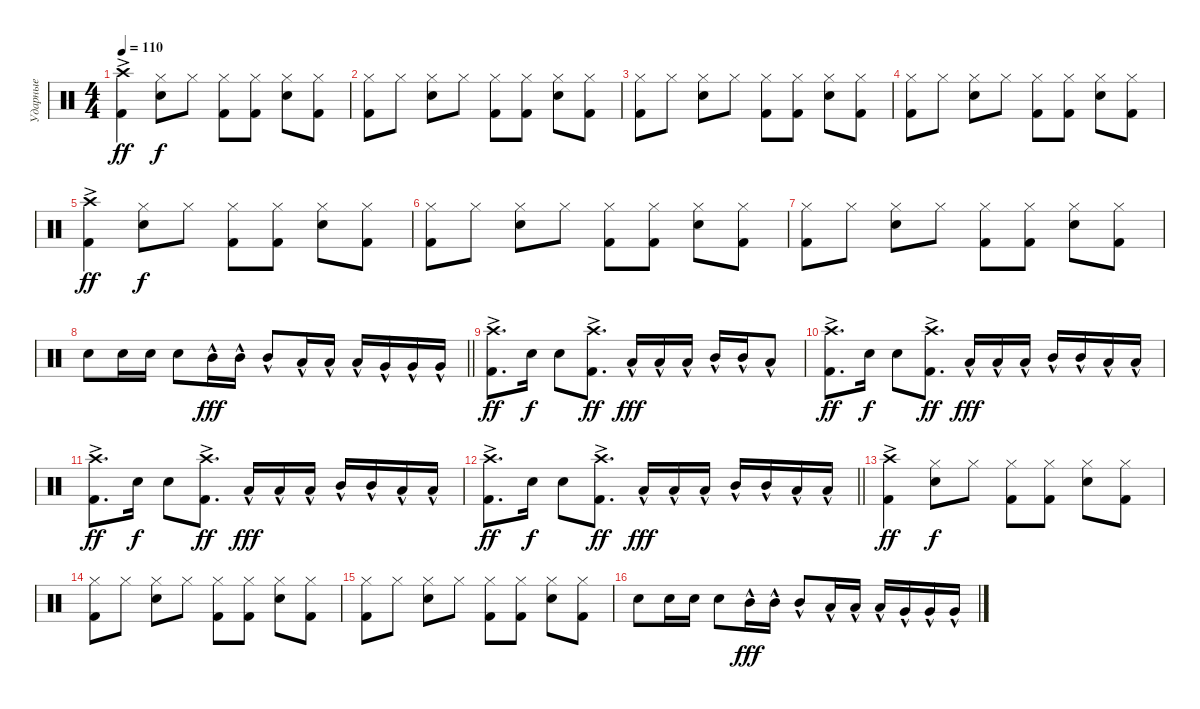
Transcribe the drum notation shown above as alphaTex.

\track ("Ударные" "Ударные") {instrument percussion}
\staff {score}
\articulation defaults
\ts (4 4)
\tempo 110
\clef neutral
\ks c
("Kick (hit) 2" "Crash high (hit)"{ac}).4{dy ff} ("Snare (hit) 2" "Hi-Hat (closed)").8{dy f} "Hi-Hat (closed)".8 ("Kick (hit) 2" "Hi-Hat (closed)").8 ("Kick (hit) 2" "Hi-Hat (closed)").8 ("Snare (hit) 2" "Hi-Hat (closed)").8 ("Kick (hit) 2" "Hi-Hat (closed)").8 |
("Kick (hit) 2" "Hi-Hat (closed)").8 "Hi-Hat (closed)".8 ("Snare (hit) 2" "Hi-Hat (closed)").8 "Hi-Hat (closed)".8 ("Kick (hit) 2" "Hi-Hat (closed)").8 ("Kick (hit) 2" "Hi-Hat (closed)").8 ("Snare (hit) 2" "Hi-Hat (closed)").8 ("Kick (hit) 2" "Hi-Hat (closed)").8 |
("Kick (hit) 2" "Hi-Hat (closed)").8 "Hi-Hat (closed)".8 ("Snare (hit) 2" "Hi-Hat (closed)").8 "Hi-Hat (closed)".8 ("Kick (hit) 2" "Hi-Hat (closed)").8 ("Kick (hit) 2" "Hi-Hat (closed)").8 ("Snare (hit) 2" "Hi-Hat (closed)").8 ("Kick (hit) 2" "Hi-Hat (closed)").8 |
("Kick (hit) 2" "Hi-Hat (closed)").8 "Hi-Hat (closed)".8 ("Snare (hit) 2" "Hi-Hat (closed)").8 "Hi-Hat (closed)".8 ("Kick (hit) 2" "Hi-Hat (closed)").8 ("Kick (hit) 2" "Hi-Hat (closed)").8 ("Snare (hit) 2" "Hi-Hat (closed)").8 ("Kick (hit) 2" "Hi-Hat (closed)").8 |
("Kick (hit) 2" "Crash high (hit)"{ac}).4{dy ff} ("Snare (hit) 2" "Hi-Hat (closed)").8{dy f} "Hi-Hat (closed)".8 ("Kick (hit) 2" "Hi-Hat (closed)").8 ("Kick (hit) 2" "Hi-Hat (closed)").8 ("Snare (hit) 2" "Hi-Hat (closed)").8 ("Kick (hit) 2" "Hi-Hat (closed)").8 |
("Kick (hit) 2" "Hi-Hat (closed)").8 "Hi-Hat (closed)".8 ("Snare (hit) 2" "Hi-Hat (closed)").8 "Hi-Hat (closed)".8 ("Kick (hit) 2" "Hi-Hat (closed)").8 ("Kick (hit) 2" "Hi-Hat (closed)").8 ("Snare (hit) 2" "Hi-Hat (closed)").8 ("Kick (hit) 2" "Hi-Hat (closed)").8 |
("Kick (hit) 2" "Hi-Hat (closed)").8 "Hi-Hat (closed)".8 ("Snare (hit) 2" "Hi-Hat (closed)").8 "Hi-Hat (closed)".8 ("Kick (hit) 2" "Hi-Hat (closed)").8 ("Kick (hit) 2" "Hi-Hat (closed)").8 ("Snare (hit) 2" "Hi-Hat (closed)").8 ("Kick (hit) 2" "Hi-Hat (closed)").8 |
\barLineRight lightlight "Snare (hit) 2".8 "Snare (hit) 2".16 "Snare (hit) 2".16 "Snare (hit) 2".8 "Mid Tom (hit)"{hac}.16{dy fff} "Mid Tom (hit)"{hac}.16 "Mid Tom (hit)"{hac}.8 "Low Tom (hit)"{hac}.16 "Low Tom (hit)"{hac}.16 "Low Tom (hit)"{hac}.16 "Very Low Tom (hit)"{hac}.16 "Very Low Tom (hit)"{hac}.16 "Very Low Tom (hit)"{hac}.16
|
("Kick (hit) 2" "Crash high (hit)"{ac}).8{d dy ff} "Snare (hit) 2".16{dy f} "Snare (hit) 2".8 ("Kick (hit) 2" "Crash high (hit)"{ac}).8{d dy ff} "Low Tom (hit)"{hac}.16{dy fff} "Low Tom (hit)"{hac}.16 "Low Tom (hit)"{hac}.16 "Mid Tom (hit)"{hac}.16 "Mid Tom (hit)"{hac}.16 "Low Tom (hit)"{hac}.8 |
("Kick (hit) 2" "Crash high (hit)"{ac}).8{d dy ff} "Snare (hit) 2".16{dy f} "Snare (hit) 2".8 ("Kick (hit) 2" "Crash high (hit)"{ac}).8{d dy ff} "Low Tom (hit)"{hac}.16{dy fff} "Low Tom (hit)"{hac}.16 "Low Tom (hit)"{hac}.16 "Mid Tom (hit)"{hac}.16 "Mid Tom (hit)"{hac}.16 "Low Tom (hit)"{hac}.16 "Low Tom (hit)"{hac}.16 |
("Kick (hit) 2" "Crash high (hit)"{ac}).8{d dy ff} "Snare (hit) 2".16{dy f} "Snare (hit) 2".8 ("Kick (hit) 2" "Crash high (hit)"{ac}).8{d dy ff} "Low Tom (hit)"{hac}.16{dy fff} "Low Tom (hit)"{hac}.16 "Low Tom (hit)"{hac}.16 "Mid Tom (hit)"{hac}.16 "Mid Tom (hit)"{hac}.16 "Low Tom (hit)"{hac}.16 "Low Tom (hit)"{hac}.16 |
\barLineRight lightlight
("Kick (hit) 2" "Crash high (hit)"{ac}).8{d dy ff} "Snare (hit) 2".16{dy f} "Snare (hit) 2".8 ("Kick (hit) 2" "Crash high (hit)"{ac}).8{d dy ff} "Low Tom (hit)"{hac}.16{dy fff} "Low Tom (hit)"{hac}.16 "Low Tom (hit)"{hac}.16 "Mid Tom (hit)"{hac}.16 "Mid Tom (hit)"{hac}.16 "Low Tom (hit)"{hac}.16 "Low Tom (hit)"{hac}.16 |
("Kick (hit) 2" "Crash high (hit)"{ac}).4{dy ff} ("Snare (hit) 2" "Hi-Hat (closed)").8{dy f} "Hi-Hat (closed)".8 ("Kick (hit) 2" "Hi-Hat (closed)").8 ("Kick (hit) 2" "Hi-Hat (closed)").8 ("Snare (hit) 2" "Hi-Hat (closed)").8 ("Kick (hit) 2" "Hi-Hat (closed)").8 |
("Kick (hit) 2" "Hi-Hat (closed)").8 "Hi-Hat (closed)".8 ("Snare (hit) 2" "Hi-Hat (closed)").8 "Hi-Hat (closed)".8 ("Kick (hit) 2" "Hi-Hat (closed)").8 ("Kick (hit) 2" "Hi-Hat (closed)").8 ("Snare (hit) 2" "Hi-Hat (closed)").8 ("Kick (hit) 2" "Hi-Hat (closed)").8 |
("Kick (hit) 2" "Hi-Hat (closed)").8 "Hi-Hat (closed)".8 ("Snare (hit) 2" "Hi-Hat (closed)").8 "Hi-Hat (closed)".8 ("Kick (hit) 2" "Hi-Hat (closed)").8 ("Kick (hit) 2" "Hi-Hat (closed)").8 ("Snare (hit) 2" "Hi-Hat (closed)").8 ("Kick (hit) 2" "Hi-Hat (closed)").8 |
"Snare (hit) 2".8 "Snare (hit) 2".16 "Snare (hit) 2".16 "Snare (hit) 2".8 "Mid Tom (hit)"{hac}.16{dy fff} "Mid Tom (hit)"{hac}.16 "Mid Tom (hit)"{hac}.8 "Low Tom (hit)"{hac}.16 "Low Tom (hit)"{hac}.16 "Low Tom (hit)"{hac}.16 "Very Low Tom (hit)"{hac}.16 "Very Low Tom (hit)"{hac}.16 "Very Low Tom (hit)"{hac}.16
